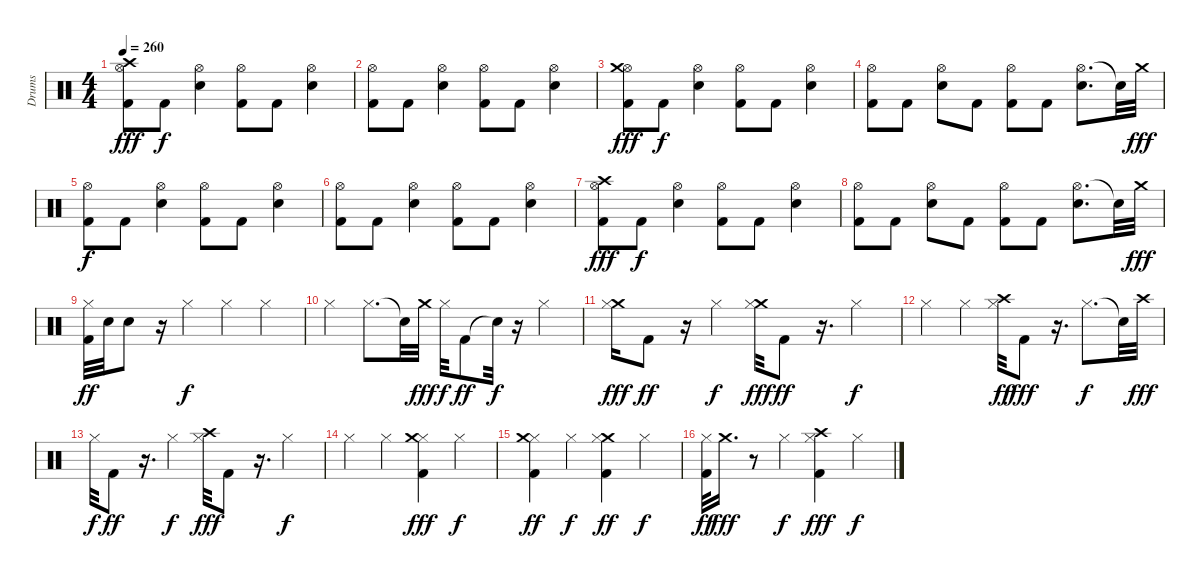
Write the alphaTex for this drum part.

\track ("Drums" "Drums") {instrument percussion}
\staff {score}
\articulation defaults
\ts (4 4)
\tempo 260
\clef neutral
\ks c
("Crash high (hit)" "Hi-Hat (open)" "Kick (hit) 2").8{dy fff} "Kick (hit) 2".8{dy f} ("Hi-Hat (open)" "Snare (hit) 2").4 ("Hi-Hat (open)" "Kick (hit) 2").8 "Kick (hit) 2".8 ("Hi-Hat (open)" "Snare (hit) 2").4 |
("Hi-Hat (open)" "Kick (hit) 2").8 "Kick (hit) 2".8 ("Hi-Hat (open)" "Snare (hit) 2").4 ("Hi-Hat (open)" "Kick (hit) 2").8 "Kick (hit) 2".8 ("Hi-Hat (open)" "Snare (hit) 2").4 |
("Hi-Hat (open)" "Kick (hit) 2" "Crash medium (hit)").8{dy fff} "Kick (hit) 2".8{dy f} ("Hi-Hat (open)" "Snare (hit) 2").4 ("Hi-Hat (open)" "Kick (hit) 2").8 "Kick (hit) 2".8 ("Hi-Hat (open)" "Snare (hit) 2").4 |
("Hi-Hat (open)" "Kick (hit) 2").8 "Kick (hit) 2".8 ("Hi-Hat (open)" "Snare (hit) 2").8 "Kick (hit) 2".8 ("Hi-Hat (open)" "Kick (hit) 2").8 "Kick (hit) 2".8 ("Hi-Hat (open)" "Snare (hit) 2").8{d} "Snare (hit)"{t}.32 "Crash medium (hit)".32{dy fff} |
("Hi-Hat (open)" "Kick (hit) 2").8{dy f} "Kick (hit) 2".8 ("Hi-Hat (open)" "Snare (hit) 2").4 ("Hi-Hat (open)" "Kick (hit) 2").8 "Kick (hit) 2".8 ("Hi-Hat (open)" "Snare (hit) 2").4 |
("Hi-Hat (open)" "Kick (hit) 2").8 "Kick (hit) 2".8 ("Hi-Hat (open)" "Snare (hit) 2").4 ("Hi-Hat (open)" "Kick (hit) 2").8 "Kick (hit) 2".8 ("Hi-Hat (open)" "Snare (hit) 2").4 |
("Hi-Hat (open)" "Kick (hit) 2" "Crash high (hit)").8{dy fff} "Kick (hit) 2".8{dy f} ("Hi-Hat (open)" "Snare (hit) 2").4 ("Hi-Hat (open)" "Kick (hit) 2").8 "Kick (hit) 2".8 ("Hi-Hat (open)" "Snare (hit) 2").4 |
("Hi-Hat (open)" "Kick (hit) 2").8 "Kick (hit) 2".8 ("Hi-Hat (open)" "Snare (hit) 2").8 "Kick (hit) 2".8 ("Hi-Hat (open)" "Kick (hit) 2").8 "Kick (hit) 2".8 ("Hi-Hat (open)" "Snare (hit) 2").8{d} "Snare (hit)"{t}.32 "Crash medium (hit)".32{dy fff} |
("Hi-Hat (closed)" "Kick (hit) 2").32{dy ff} "Electric Snare (hit)".32 "Snare (hit) 2".8 r.16 "Hi-Hat (closed)".4{dy f} "Hi-Hat (closed)".4 "Hi-Hat (closed)".4 |
"Hi-Hat (closed)".4 "Hi-Hat (closed)".8{d} "Snare (hit)"{t}.32 "Crash medium (hit)".32{dy fff} "Hi-Hat (closed)".32{dy f} "Kick (hit) 2".8{dy ff} "Snare (hit)"{t}.32{dy f} r.16 "Hi-Hat (closed)".4 |
("Crash medium (hit)" "Hi-Hat (closed)").16{dy fff} "Kick (hit) 2".8{dy ff} r.16 "Hi-Hat (closed)".4{dy f} ("Crash medium (hit)" "Hi-Hat (closed)").32{dy fff} "Kick (hit) 2".8{dy ff} r.16{d} "Hi-Hat (closed)".4{dy f} |
"Hi-Hat (closed)".4 "Hi-Hat (closed)".4 ("Crash high (hit)" "Hi-Hat (closed)").32{dy ff} "Kick (hit) 2".8{dy fff} r.16{d} "Hi-Hat (closed)".8{d dy f} "Snare (hit)"{t}.32 "Crash high (hit)".32{dy fff} |
"Hi-Hat (closed)".32{dy f} "Kick (hit) 2".8{dy ff} r.16{d} "Hi-Hat (closed)".4{dy f} ("Crash high (hit)" "Hi-Hat (closed)").32{dy fff} "Kick (hit) 2".8 r.16{d} "Hi-Hat (closed)".4{dy f} |
"Hi-Hat (closed)".4 "Hi-Hat (closed)".4 ("Hi-Hat (closed)" "Kick (hit) 2" "Crash medium (hit)").4{dy fff} "Hi-Hat (closed)".4{dy f} |
("Hi-Hat (closed)" "Crash medium (hit)" "Kick (hit) 2").4{dy ff} "Hi-Hat (closed)".4{dy f} ("Crash medium (hit)" "Hi-Hat (closed)" "Kick (hit) 2").4{dy ff} "Hi-Hat (closed)".4{dy f} |
("Hi-Hat (closed)" "Kick (hit) 2").32{dy ff} "Crash medium (hit)".16{d dy fff} r.8 "Hi-Hat (closed)".4{dy f} ("Hi-Hat (closed)" "Kick (hit) 2" "Crash high (hit)").4{dy fff} "Hi-Hat (closed)".4{dy f}
